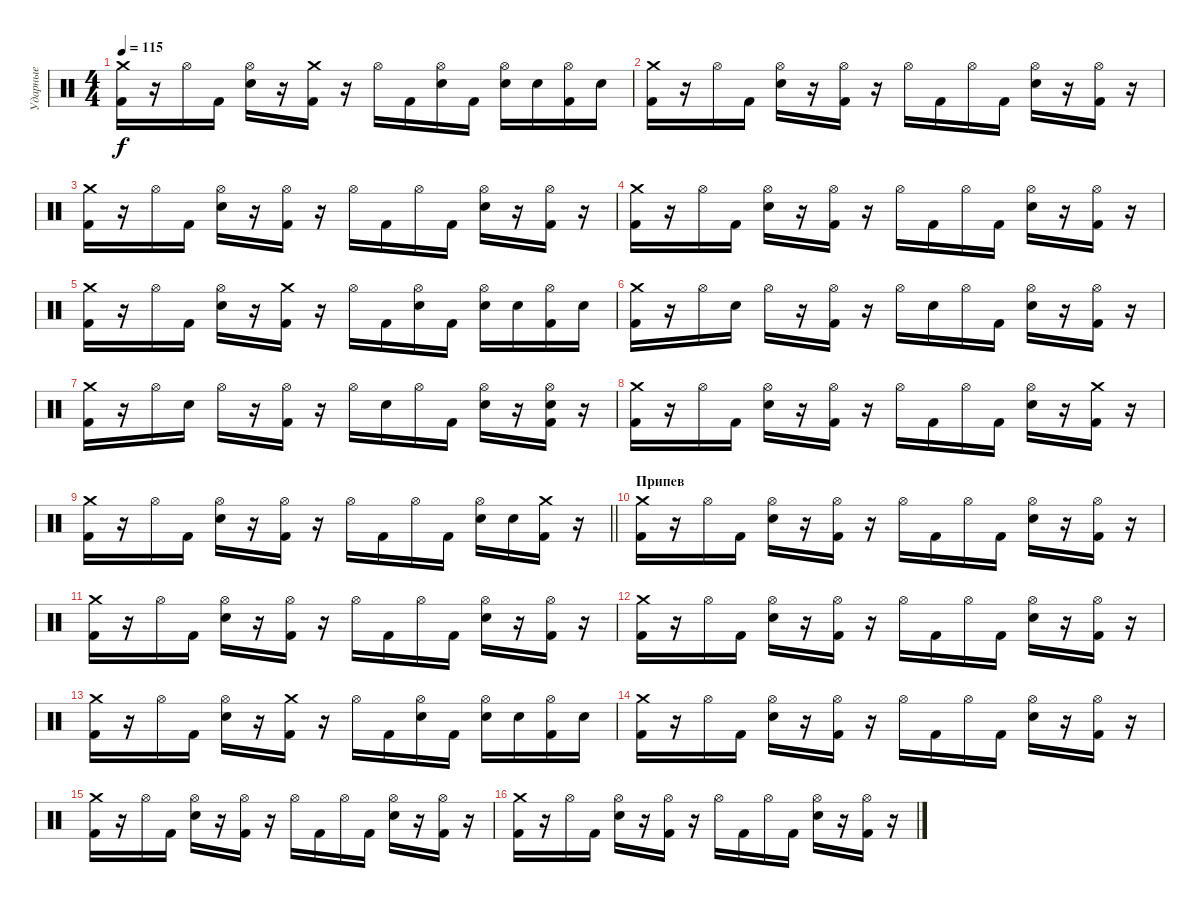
\track ("Ударные" "Ударные") {instrument percussion}
\staff {score}
\articulation defaults
\ts (4 4)
\tempo 115
\clef neutral
\ks c
("Crash medium (hit)" "Kick (hit) 2").16{dy f} r.16 "Hi-Hat (open)".16 "Kick (hit) 2".16 ("Hi-Hat (open)" "Electric Snare (hit)").16 r.16 ("Crash medium (hit)" "Kick (hit) 2").16 r.16 "Hi-Hat (open)".16 "Kick (hit) 2".16 ("Hi-Hat (open)" "Electric Snare (hit)").16 "Kick (hit) 2".16 ("Hi-Hat (open)" "Electric Snare (hit)").16 "Electric Snare (hit)".16 ("Hi-Hat (open)" "Kick (hit) 2").16 "Electric Snare (hit)".16 |
("Crash medium (hit)" "Kick (hit) 2").16 r.16 "Hi-Hat (open)".16 "Kick (hit) 2".16 ("Hi-Hat (open)" "Electric Snare (hit)").16 r.16 ("Hi-Hat (open)" "Kick (hit) 2").16 r.16 "Hi-Hat (open)".16 "Kick (hit) 2".16 "Hi-Hat (open)".16 "Kick (hit) 2".16 ("Hi-Hat (open)" "Electric Snare (hit)").16 r.16 ("Hi-Hat (open)" "Kick (hit) 2").16 r.16 |
("Crash medium (hit)" "Kick (hit) 2").16 r.16 "Hi-Hat (open)".16 "Kick (hit) 2".16 ("Hi-Hat (open)" "Electric Snare (hit)").16 r.16 ("Hi-Hat (open)" "Kick (hit) 2").16 r.16 "Hi-Hat (open)".16 "Kick (hit) 2".16 "Hi-Hat (open)".16 "Kick (hit) 2".16 ("Hi-Hat (open)" "Electric Snare (hit)").16 r.16 ("Hi-Hat (open)" "Kick (hit) 2").16 r.16 |
("Crash medium (hit)" "Kick (hit) 2").16 r.16 "Hi-Hat (open)".16 "Kick (hit) 2".16 ("Hi-Hat (open)" "Electric Snare (hit)").16 r.16 ("Hi-Hat (open)" "Kick (hit) 2").16 r.16 "Hi-Hat (open)".16 "Kick (hit) 2".16 "Hi-Hat (open)".16 "Kick (hit) 2".16 ("Hi-Hat (open)" "Electric Snare (hit)").16 r.16 ("Hi-Hat (open)" "Kick (hit) 2").16 r.16 |
("Crash medium (hit)" "Kick (hit) 2").16 r.16 "Hi-Hat (open)".16 "Kick (hit) 2".16 ("Hi-Hat (open)" "Electric Snare (hit)").16 r.16 ("Crash medium (hit)" "Kick (hit) 2").16 r.16 "Hi-Hat (open)".16 "Kick (hit) 2".16 ("Hi-Hat (open)" "Electric Snare (hit)").16 "Kick (hit) 2".16 ("Hi-Hat (open)" "Electric Snare (hit)").16 "Electric Snare (hit)".16 ("Hi-Hat (open)" "Kick (hit) 2").16 "Electric Snare (hit)".16 |
("Crash medium (hit)" "Kick (hit) 2").16 r.16 "Hi-Hat (open)".16 "Electric Snare (hit)".16 "Hi-Hat (open)".16 r.16 ("Hi-Hat (open)" "Kick (hit) 2").16 r.16 "Hi-Hat (open)".16 "Electric Snare (hit)".16 "Hi-Hat (open)".16 "Kick (hit) 2".16 ("Hi-Hat (open)" "Electric Snare (hit)").16 r.16 ("Hi-Hat (open)" "Kick (hit) 2").16 r.16 |
("Crash medium (hit)" "Kick (hit) 2").16 r.16 "Hi-Hat (open)".16 "Electric Snare (hit)".16 "Hi-Hat (open)".16 r.16 ("Hi-Hat (open)" "Kick (hit) 2").16 r.16 "Hi-Hat (open)".16 "Electric Snare (hit)".16 "Hi-Hat (open)".16 "Kick (hit) 2".16 ("Hi-Hat (open)" "Electric Snare (hit)").16 r.16 ("Hi-Hat (open)" "Electric Snare (hit)" "Kick (hit) 2").16 r.16 |
("Crash medium (hit)" "Kick (hit) 2").16 r.16 "Hi-Hat (open)".16 "Kick (hit) 2".16 ("Hi-Hat (open)" "Electric Snare (hit)").16 r.16 ("Hi-Hat (open)" "Kick (hit) 2").16 r.16 "Hi-Hat (open)".16 "Kick (hit) 2".16 "Hi-Hat (open)".16 "Kick (hit) 2".16 ("Hi-Hat (open)" "Electric Snare (hit)").16 r.16 ("Crash medium (hit)" "Kick (hit) 2").16 r.16 |
\barLineRight lightlight
("Crash medium (hit)" "Kick (hit) 2").16 r.16 "Hi-Hat (open)".16 "Kick (hit) 2".16 ("Hi-Hat (open)" "Electric Snare (hit)").16 r.16 ("Hi-Hat (open)" "Kick (hit) 2").16 r.16 "Hi-Hat (open)".16 "Kick (hit) 2".16 "Hi-Hat (open)".16 "Kick (hit) 2".16 ("Hi-Hat (open)" "Electric Snare (hit)").16 "Electric Snare (hit)".16 ("Crash medium (hit)" "Kick (hit) 2").16 r.16 |
\section ("" "Припев")
("Crash medium (hit)" "Kick (hit) 2").16 r.16 "Hi-Hat (open)".16 "Kick (hit) 2".16 ("Hi-Hat (open)" "Electric Snare (hit)").16 r.16 ("Hi-Hat (open)" "Kick (hit) 2").16 r.16 "Hi-Hat (open)".16 "Kick (hit) 2".16 "Hi-Hat (open)".16 "Kick (hit) 2".16 ("Hi-Hat (open)" "Electric Snare (hit)").16 r.16 ("Hi-Hat (open)" "Kick (hit) 2").16 r.16 |
("Crash medium (hit)" "Kick (hit) 2").16 r.16 "Hi-Hat (open)".16 "Kick (hit) 2".16 ("Hi-Hat (open)" "Electric Snare (hit)").16 r.16 ("Hi-Hat (open)" "Kick (hit) 2").16 r.16 "Hi-Hat (open)".16 "Kick (hit) 2".16 "Hi-Hat (open)".16 "Kick (hit) 2".16 ("Hi-Hat (open)" "Electric Snare (hit)").16 r.16 ("Hi-Hat (open)" "Kick (hit) 2").16 r.16 |
("Crash medium (hit)" "Kick (hit) 2").16 r.16 "Hi-Hat (open)".16 "Kick (hit) 2".16 ("Hi-Hat (open)" "Electric Snare (hit)").16 r.16 ("Hi-Hat (open)" "Kick (hit) 2").16 r.16 "Hi-Hat (open)".16 "Kick (hit) 2".16 "Hi-Hat (open)".16 "Kick (hit) 2".16 ("Hi-Hat (open)" "Electric Snare (hit)").16 r.16 ("Hi-Hat (open)" "Kick (hit) 2").16 r.16 |
("Crash medium (hit)" "Kick (hit) 2").16 r.16 "Hi-Hat (open)".16 "Kick (hit) 2".16 ("Hi-Hat (open)" "Electric Snare (hit)").16 r.16 ("Crash medium (hit)" "Kick (hit) 2").16 r.16 "Hi-Hat (open)".16 "Kick (hit) 2".16 ("Hi-Hat (open)" "Electric Snare (hit)").16 "Kick (hit) 2".16 ("Hi-Hat (open)" "Electric Snare (hit)").16 "Electric Snare (hit)".16 ("Hi-Hat (open)" "Kick (hit) 2").16 "Electric Snare (hit)".16 |
("Crash medium (hit)" "Kick (hit) 2").16 r.16 "Hi-Hat (open)".16 "Kick (hit) 2".16 ("Hi-Hat (open)" "Electric Snare (hit)").16 r.16 ("Hi-Hat (open)" "Kick (hit) 2").16 r.16 "Hi-Hat (open)".16 "Kick (hit) 2".16 "Hi-Hat (open)".16 "Kick (hit) 2".16 ("Hi-Hat (open)" "Electric Snare (hit)").16 r.16 ("Hi-Hat (open)" "Kick (hit) 2").16 r.16 |
("Crash medium (hit)" "Kick (hit) 2").16 r.16 "Hi-Hat (open)".16 "Kick (hit) 2".16 ("Hi-Hat (open)" "Electric Snare (hit)").16 r.16 ("Hi-Hat (open)" "Kick (hit) 2").16 r.16 "Hi-Hat (open)".16 "Kick (hit) 2".16 "Hi-Hat (open)".16 "Kick (hit) 2".16 ("Hi-Hat (open)" "Electric Snare (hit)").16 r.16 ("Hi-Hat (open)" "Kick (hit) 2").16 r.16 |
("Crash medium (hit)" "Kick (hit) 2").16 r.16 "Hi-Hat (open)".16 "Kick (hit) 2".16 ("Hi-Hat (open)" "Electric Snare (hit)").16 r.16 ("Hi-Hat (open)" "Kick (hit) 2").16 r.16 "Hi-Hat (open)".16 "Kick (hit) 2".16 "Hi-Hat (open)".16 "Kick (hit) 2".16 ("Hi-Hat (open)" "Electric Snare (hit)").16 r.16 ("Hi-Hat (open)" "Kick (hit) 2").16 r.16
